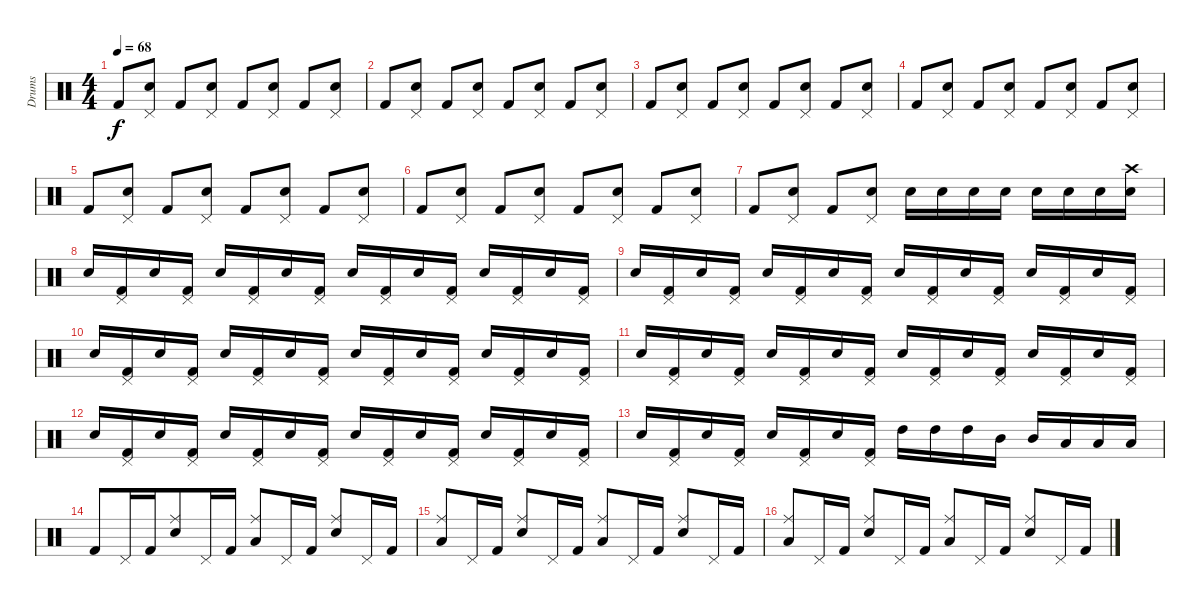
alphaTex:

\track ("Drums" "Drums") {instrument percussion}
\staff {score}
\articulation defaults
\ts (4 4)
\tempo 68
\clef neutral
\ks c "Kick (hit) 2".8{dy f}
("Snare (hit) 2" "Pedal Hi-Hat (hit)").8 "Kick (hit) 2".8 ("Snare (hit) 2" "Pedal Hi-Hat (hit)").8 "Kick (hit) 2".8 ("Snare (hit) 2" "Pedal Hi-Hat (hit)").8 "Kick (hit) 2".8 ("Snare (hit) 2" "Pedal Hi-Hat (hit)").8 |
"Kick (hit) 2".8 ("Snare (hit) 2" "Pedal Hi-Hat (hit)").8 "Kick (hit) 2".8 ("Snare (hit) 2" "Pedal Hi-Hat (hit)").8 "Kick (hit) 2".8 ("Snare (hit) 2" "Pedal Hi-Hat (hit)").8 "Kick (hit) 2".8 ("Snare (hit) 2" "Pedal Hi-Hat (hit)").8 |
"Kick (hit) 2".8 ("Snare (hit) 2" "Pedal Hi-Hat (hit)").8 "Kick (hit) 2".8 ("Snare (hit) 2" "Pedal Hi-Hat (hit)").8 "Kick (hit) 2".8 ("Snare (hit) 2" "Pedal Hi-Hat (hit)").8 "Kick (hit) 2".8 ("Snare (hit) 2" "Pedal Hi-Hat (hit)").8 |
"Kick (hit) 2".8 ("Snare (hit) 2" "Pedal Hi-Hat (hit)").8 "Kick (hit) 2".8 ("Snare (hit) 2" "Pedal Hi-Hat (hit)").8 "Kick (hit) 2".8 ("Snare (hit) 2" "Pedal Hi-Hat (hit)").8 "Kick (hit) 2".8 ("Snare (hit) 2" "Pedal Hi-Hat (hit)").8 |
"Kick (hit) 2".8 ("Snare (hit) 2" "Pedal Hi-Hat (hit)").8 "Kick (hit) 2".8 ("Snare (hit) 2" "Pedal Hi-Hat (hit)").8 "Kick (hit) 2".8 ("Snare (hit) 2" "Pedal Hi-Hat (hit)").8 "Kick (hit) 2".8 ("Snare (hit) 2" "Pedal Hi-Hat (hit)").8 |
"Kick (hit) 2".8 ("Snare (hit) 2" "Pedal Hi-Hat (hit)").8 "Kick (hit) 2".8 ("Snare (hit) 2" "Pedal Hi-Hat (hit)").8 "Kick (hit) 2".8 ("Snare (hit) 2" "Pedal Hi-Hat (hit)").8 "Kick (hit) 2".8 ("Snare (hit) 2" "Pedal Hi-Hat (hit)").8 |
"Kick (hit) 2".8 ("Snare (hit) 2" "Pedal Hi-Hat (hit)").8 "Kick (hit) 2".8 ("Snare (hit) 2" "Pedal Hi-Hat (hit)").8 "Electric Snare (hit)".16 "Electric Snare (hit)".16 "Electric Snare (hit)".16 "Electric Snare (hit)".16 "Snare (hit) 2".16 "Snare (hit) 2".16 "Snare (hit) 2".16 ("Snare (hit) 2" "Crash high (hit)").16 |
"Snare (hit) 2".16 ("Pedal Hi-Hat (hit)" "Kick (hit) 2").16 "Snare (hit) 2".16 ("Pedal Hi-Hat (hit)" "Kick (hit) 2").16 "Snare (hit) 2".16 ("Pedal Hi-Hat (hit)" "Kick (hit) 2").16 "Snare (hit) 2".16 ("Pedal Hi-Hat (hit)" "Kick (hit) 2").16 "Snare (hit) 2".16 ("Pedal Hi-Hat (hit)" "Kick (hit) 2").16 "Snare (hit) 2".16 ("Pedal Hi-Hat (hit)" "Kick (hit) 2").16 "Snare (hit) 2".16 ("Pedal Hi-Hat (hit)" "Kick (hit) 2").16 "Snare (hit) 2".16 ("Pedal Hi-Hat (hit)" "Kick (hit) 2").16 |
"Snare (hit) 2".16 ("Pedal Hi-Hat (hit)" "Kick (hit) 2").16 "Snare (hit) 2".16 ("Pedal Hi-Hat (hit)" "Kick (hit) 2").16 "Snare (hit) 2".16 ("Pedal Hi-Hat (hit)" "Kick (hit) 2").16 "Snare (hit) 2".16 ("Pedal Hi-Hat (hit)" "Kick (hit) 2").16 "Snare (hit) 2".16 ("Pedal Hi-Hat (hit)" "Kick (hit) 2").16 "Snare (hit) 2".16 ("Pedal Hi-Hat (hit)" "Kick (hit) 2").16 "Snare (hit) 2".16 ("Pedal Hi-Hat (hit)" "Kick (hit) 2").16 "Snare (hit) 2".16 ("Pedal Hi-Hat (hit)" "Kick (hit) 2").16 |
"Snare (hit) 2".16 ("Pedal Hi-Hat (hit)" "Kick (hit) 2").16 "Snare (hit) 2".16 ("Pedal Hi-Hat (hit)" "Kick (hit) 2").16 "Snare (hit) 2".16 ("Pedal Hi-Hat (hit)" "Kick (hit) 2").16 "Snare (hit) 2".16 ("Pedal Hi-Hat (hit)" "Kick (hit) 2").16 "Snare (hit) 2".16 ("Pedal Hi-Hat (hit)" "Kick (hit) 2").16 "Snare (hit) 2".16 ("Pedal Hi-Hat (hit)" "Kick (hit) 2").16 "Snare (hit) 2".16 ("Pedal Hi-Hat (hit)" "Kick (hit) 2").16 "Snare (hit) 2".16 ("Pedal Hi-Hat (hit)" "Kick (hit) 2").16 |
"Snare (hit) 2".16 ("Pedal Hi-Hat (hit)" "Kick (hit) 2").16 "Snare (hit) 2".16 ("Pedal Hi-Hat (hit)" "Kick (hit) 2").16 "Snare (hit) 2".16 ("Pedal Hi-Hat (hit)" "Kick (hit) 2").16 "Snare (hit) 2".16 ("Pedal Hi-Hat (hit)" "Kick (hit) 2").16 "Snare (hit) 2".16 ("Pedal Hi-Hat (hit)" "Kick (hit) 2").16 "Snare (hit) 2".16 ("Pedal Hi-Hat (hit)" "Kick (hit) 2").16 "Snare (hit) 2".16 ("Pedal Hi-Hat (hit)" "Kick (hit) 2").16 "Snare (hit) 2".16 ("Pedal Hi-Hat (hit)" "Kick (hit) 2").16 |
"Snare (hit) 2".16 ("Pedal Hi-Hat (hit)" "Kick (hit) 2").16 "Snare (hit) 2".16 ("Pedal Hi-Hat (hit)" "Kick (hit) 2").16 "Snare (hit) 2".16 ("Pedal Hi-Hat (hit)" "Kick (hit) 2").16 "Snare (hit) 2".16 ("Pedal Hi-Hat (hit)" "Kick (hit) 2").16 "Snare (hit) 2".16 ("Pedal Hi-Hat (hit)" "Kick (hit) 2").16 "Snare (hit) 2".16 ("Pedal Hi-Hat (hit)" "Kick (hit) 2").16 "Snare (hit) 2".16 ("Pedal Hi-Hat (hit)" "Kick (hit) 2").16 "Snare (hit) 2".16 ("Pedal Hi-Hat (hit)" "Kick (hit) 2").16 |
"Snare (hit) 2".16 ("Pedal Hi-Hat (hit)" "Kick (hit) 2").16 "Snare (hit) 2".16 ("Pedal Hi-Hat (hit)" "Kick (hit) 2").16 "Snare (hit) 2".16 ("Pedal Hi-Hat (hit)" "Kick (hit) 2").16 "Snare (hit) 2".16 ("Pedal Hi-Hat (hit)" "Kick (hit) 2").16 "High Tom (hit)".16 "High Tom (hit)".16 "High Tom (hit)".16 "Mid Tom (hit)".16 "Mid Tom (hit)".16 "Low Tom (hit)".16 "Low Tom (hit)".16 "Low Tom (hit)".16 |
"Kick (hit) 2".8 "Pedal Hi-Hat (hit)".16{beam merge} "Kick (hit) 2".16{beam merge} ("Electric Snare (hit)" "Ride (middle)").8 "Pedal Hi-Hat (hit)".16 "Kick (hit) 2".16 ("Low Tom (hit)" "Ride (middle)").8 "Pedal Hi-Hat (hit)".16 "Kick (hit) 2".16 ("Electric Snare (hit)" "Ride (middle)").8 "Pedal Hi-Hat (hit)".16{beam merge} "Kick (hit) 2".16 |
("Low Tom (hit)" "Ride (middle)").8 "Pedal Hi-Hat (hit)".16 "Kick (hit) 2".16 ("Electric Snare (hit)" "Ride (middle)").8 "Pedal Hi-Hat (hit)".16{beam merge} "Kick (hit) 2".16 ("Low Tom (hit)" "Ride (middle)").8 "Pedal Hi-Hat (hit)".16 "Kick (hit) 2".16 ("Electric Snare (hit)" "Ride (middle)").8 "Pedal Hi-Hat (hit)".16{beam merge} "Kick (hit) 2".16 |
("Low Tom (hit)" "Ride (middle)").8 "Pedal Hi-Hat (hit)".16 "Kick (hit) 2".16 ("Electric Snare (hit)" "Ride (middle)").8 "Pedal Hi-Hat (hit)".16{beam merge} "Kick (hit) 2".16 ("Low Tom (hit)" "Ride (middle)").8 "Pedal Hi-Hat (hit)".16 "Kick (hit) 2".16 ("Electric Snare (hit)" "Ride (middle)").8 "Pedal Hi-Hat (hit)".16{beam merge} "Kick (hit) 2".16
